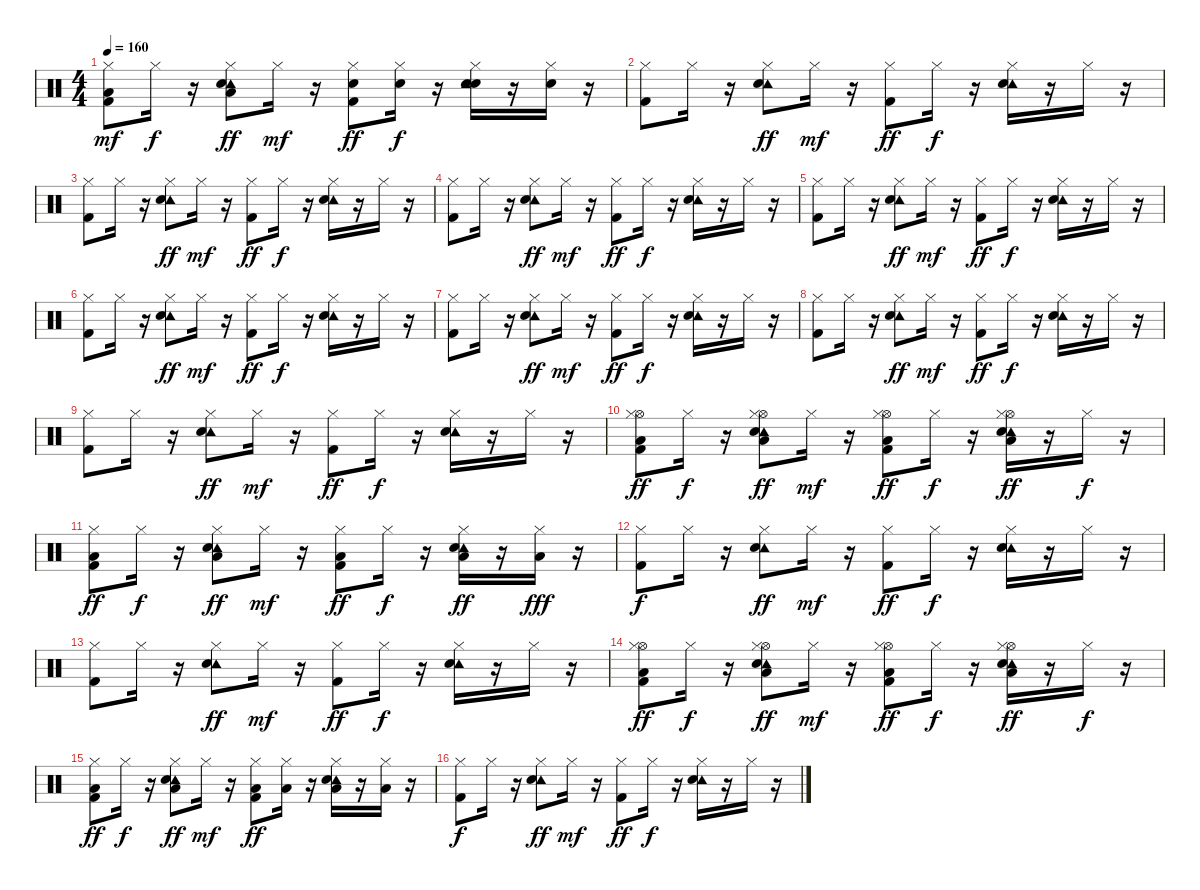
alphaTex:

\track "" {instrument percussion}
\staff {score}
\articulation defaults
\ts (4 4)
\tempo 160
\clef neutral
\ks c
("Low Floor Tom (hit)" "Hi-Hat (closed)" "Kick (hit) 2").8{dy mf} "Hi-Hat (closed)".16{dy f} r.16 ("Low Floor Tom (hit)" "Tambourine (hit)" "Hi-Hat (closed)" "Snare (hit) 2").8{dy ff} "Hi-Hat (closed)".16{dy mf} r.16 ("Electric Snare (hit)" "Hi-Hat (closed)" "Kick (hit) 2").8{dy ff} ("Electric Snare (hit)" "Hi-Hat (closed)").16{dy f} r.16 ("Electric Snare (hit)" "Tambourine (hit)" "Hi-Hat (closed)" "Snare (hit) 2").16 r.16 ("Electric Snare (hit)" "Hi-Hat (closed)").16 r.16 |
("Hi-Hat (closed)" "Kick (hit) 2").8 "Hi-Hat (closed)".16 r.16 ("Tambourine (hit)" "Hi-Hat (closed)" "Snare (hit) 2").8{dy ff} "Hi-Hat (closed)".16{dy mf} r.16 ("Hi-Hat (closed)" "Kick (hit) 2").8{dy ff} "Hi-Hat (closed)".16{dy f} r.16 ("Tambourine (hit)" "Hi-Hat (closed)" "Snare (hit) 2").16 r.16 "Hi-Hat (closed)".16 r.16 |
("Hi-Hat (closed)" "Kick (hit) 2").8 "Hi-Hat (closed)".16 r.16 ("Tambourine (hit)" "Hi-Hat (closed)" "Snare (hit) 2").8{dy ff} "Hi-Hat (closed)".16{dy mf} r.16 ("Hi-Hat (closed)" "Kick (hit) 2").8{dy ff} "Hi-Hat (closed)".16{dy f} r.16 ("Tambourine (hit)" "Hi-Hat (closed)" "Snare (hit) 2").16 r.16 "Hi-Hat (closed)".16 r.16 |
("Hi-Hat (closed)" "Kick (hit) 2").8 "Hi-Hat (closed)".16 r.16 ("Tambourine (hit)" "Hi-Hat (closed)" "Snare (hit) 2").8{dy ff} "Hi-Hat (closed)".16{dy mf} r.16 ("Hi-Hat (closed)" "Kick (hit) 2").8{dy ff} "Hi-Hat (closed)".16{dy f} r.16 ("Tambourine (hit)" "Hi-Hat (closed)" "Snare (hit) 2").16 r.16 "Hi-Hat (closed)".16 r.16 |
("Hi-Hat (closed)" "Kick (hit) 2").8 "Hi-Hat (closed)".16 r.16 ("Tambourine (hit)" "Hi-Hat (closed)" "Snare (hit) 2").8{dy ff} "Hi-Hat (closed)".16{dy mf} r.16 ("Hi-Hat (closed)" "Kick (hit) 2").8{dy ff} "Hi-Hat (closed)".16{dy f} r.16 ("Tambourine (hit)" "Hi-Hat (closed)" "Snare (hit) 2").16 r.16 "Hi-Hat (closed)".16 r.16 |
("Hi-Hat (closed)" "Kick (hit) 2").8 "Hi-Hat (closed)".16 r.16 ("Tambourine (hit)" "Hi-Hat (closed)" "Snare (hit) 2").8{dy ff} "Hi-Hat (closed)".16{dy mf} r.16 ("Hi-Hat (closed)" "Kick (hit) 2").8{dy ff} "Hi-Hat (closed)".16{dy f} r.16 ("Tambourine (hit)" "Hi-Hat (closed)" "Snare (hit) 2").16 r.16 "Hi-Hat (closed)".16 r.16 |
("Hi-Hat (closed)" "Kick (hit) 2").8 "Hi-Hat (closed)".16 r.16 ("Tambourine (hit)" "Hi-Hat (closed)" "Snare (hit) 2").8{dy ff} "Hi-Hat (closed)".16{dy mf} r.16 ("Hi-Hat (closed)" "Kick (hit) 2").8{dy ff} "Hi-Hat (closed)".16{dy f} r.16 ("Tambourine (hit)" "Hi-Hat (closed)" "Snare (hit) 2").16 r.16 "Hi-Hat (closed)".16 r.16 |
("Hi-Hat (closed)" "Kick (hit) 2").8 "Hi-Hat (closed)".16 r.16 ("Tambourine (hit)" "Hi-Hat (closed)" "Snare (hit) 2").8{dy ff} "Hi-Hat (closed)".16{dy mf} r.16 ("Hi-Hat (closed)" "Kick (hit) 2").8{dy ff} "Hi-Hat (closed)".16{dy f} r.16 ("Tambourine (hit)" "Hi-Hat (closed)" "Snare (hit) 2").16 r.16 "Hi-Hat (closed)".16 r.16 |
("Hi-Hat (closed)" "Kick (hit) 2").8 "Hi-Hat (closed)".16 r.16 ("Tambourine (hit)" "Hi-Hat (closed)" "Snare (hit) 2").8{dy ff} "Hi-Hat (closed)".16{dy mf} r.16 ("Hi-Hat (closed)" "Kick (hit) 2").8{dy ff} "Hi-Hat (closed)".16{dy f} r.16 ("Tambourine (hit)" "Hi-Hat (closed)" "Snare (hit) 2").16 r.16 "Hi-Hat (closed)".16 r.16 |
("Hi-Hat (open)" "Low Floor Tom (hit)" "Hi-Hat (closed)" "Kick (hit) 2").8{dy ff} "Hi-Hat (closed)".16{dy f} r.16 ("Hi-Hat (open)" "Low Floor Tom (hit)" "Tambourine (hit)" "Hi-Hat (closed)" "Snare (hit) 2").8{dy ff} "Hi-Hat (closed)".16{dy mf} r.16 ("Hi-Hat (open)" "Low Floor Tom (hit)" "Hi-Hat (closed)" "Kick (hit) 2").8{dy ff} "Hi-Hat (closed)".16{dy f} r.16 ("Low Floor Tom (hit)" "Hi-Hat (open)" "Tambourine (hit)" "Hi-Hat (closed)" "Snare (hit) 2").16{dy ff} r.16 "Hi-Hat (closed)".16{dy f} r.16 |
("Low Floor Tom (hit)" "Hi-Hat (closed)" "Kick (hit) 2").8{dy ff} "Hi-Hat (closed)".16{dy f} r.16 ("Low Floor Tom (hit)" "Tambourine (hit)" "Hi-Hat (closed)" "Snare (hit) 2").8{dy ff} "Hi-Hat (closed)".16{dy mf} r.16 ("Low Floor Tom (hit)" "Hi-Hat (closed)" "Kick (hit) 2").8{dy ff} "Hi-Hat (closed)".16{dy f} r.16 ("Low Floor Tom (hit)" "Tambourine (hit)" "Hi-Hat (closed)" "Snare (hit) 2").16{dy ff} r.16 ("Low Floor Tom (hit)" "Hi-Hat (closed)").16{dy fff} r.16 |
("Hi-Hat (closed)" "Kick (hit) 2").8{dy f} "Hi-Hat (closed)".16 r.16 ("Tambourine (hit)" "Hi-Hat (closed)" "Snare (hit) 2").8{dy ff} "Hi-Hat (closed)".16{dy mf} r.16 ("Hi-Hat (closed)" "Kick (hit) 2").8{dy ff} "Hi-Hat (closed)".16{dy f} r.16 ("Tambourine (hit)" "Hi-Hat (closed)" "Snare (hit) 2").16 r.16 "Hi-Hat (closed)".16 r.16 |
("Hi-Hat (closed)" "Kick (hit) 2").8 "Hi-Hat (closed)".16 r.16 ("Tambourine (hit)" "Hi-Hat (closed)" "Snare (hit) 2").8{dy ff} "Hi-Hat (closed)".16{dy mf} r.16 ("Hi-Hat (closed)" "Kick (hit) 2").8{dy ff} "Hi-Hat (closed)".16{dy f} r.16 ("Tambourine (hit)" "Hi-Hat (closed)" "Snare (hit) 2").16 r.16 "Hi-Hat (closed)".16 r.16 |
("Hi-Hat (open)" "Low Floor Tom (hit)" "Hi-Hat (closed)" "Kick (hit) 2").8{dy ff} "Hi-Hat (closed)".16{dy f} r.16 ("Hi-Hat (open)" "Low Floor Tom (hit)" "Tambourine (hit)" "Hi-Hat (closed)" "Snare (hit) 2").8{dy ff} "Hi-Hat (closed)".16{dy mf} r.16 ("Low Floor Tom (hit)" "Hi-Hat (open)" "Hi-Hat (closed)" "Kick (hit) 2").8{dy ff} "Hi-Hat (closed)".16{dy f} r.16 ("Hi-Hat (open)" "Low Floor Tom (hit)" "Tambourine (hit)" "Hi-Hat (closed)" "Snare (hit) 2").16{dy ff} r.16 "Hi-Hat (closed)".16{dy f} r.16 |
("Low Floor Tom (hit)" "Hi-Hat (closed)" "Kick (hit) 2").8{dy ff} "Hi-Hat (closed)".16{dy f} r.16 ("Low Floor Tom (hit)" "Tambourine (hit)" "Hi-Hat (closed)" "Snare (hit) 2").8{dy ff} "Hi-Hat (closed)".16{dy mf} r.16 ("Low Floor Tom (hit)" "Hi-Hat (closed)" "Kick (hit) 2").8{dy ff} ("Low Floor Tom (hit)" "Hi-Hat (closed)").16 r.16 ("Low Floor Tom (hit)" "Tambourine (hit)" "Hi-Hat (closed)" "Snare (hit) 2").16 r.16 ("Low Floor Tom (hit)" "Hi-Hat (closed)").16 r.16 |
("Hi-Hat (closed)" "Kick (hit) 2").8{dy f} "Hi-Hat (closed)".16 r.16 ("Tambourine (hit)" "Hi-Hat (closed)" "Snare (hit) 2").8{dy ff} "Hi-Hat (closed)".16{dy mf} r.16 ("Hi-Hat (closed)" "Kick (hit) 2").8{dy ff} "Hi-Hat (closed)".16{dy f} r.16 ("Tambourine (hit)" "Hi-Hat (closed)" "Snare (hit) 2").16 r.16 "Hi-Hat (closed)".16 r.16
